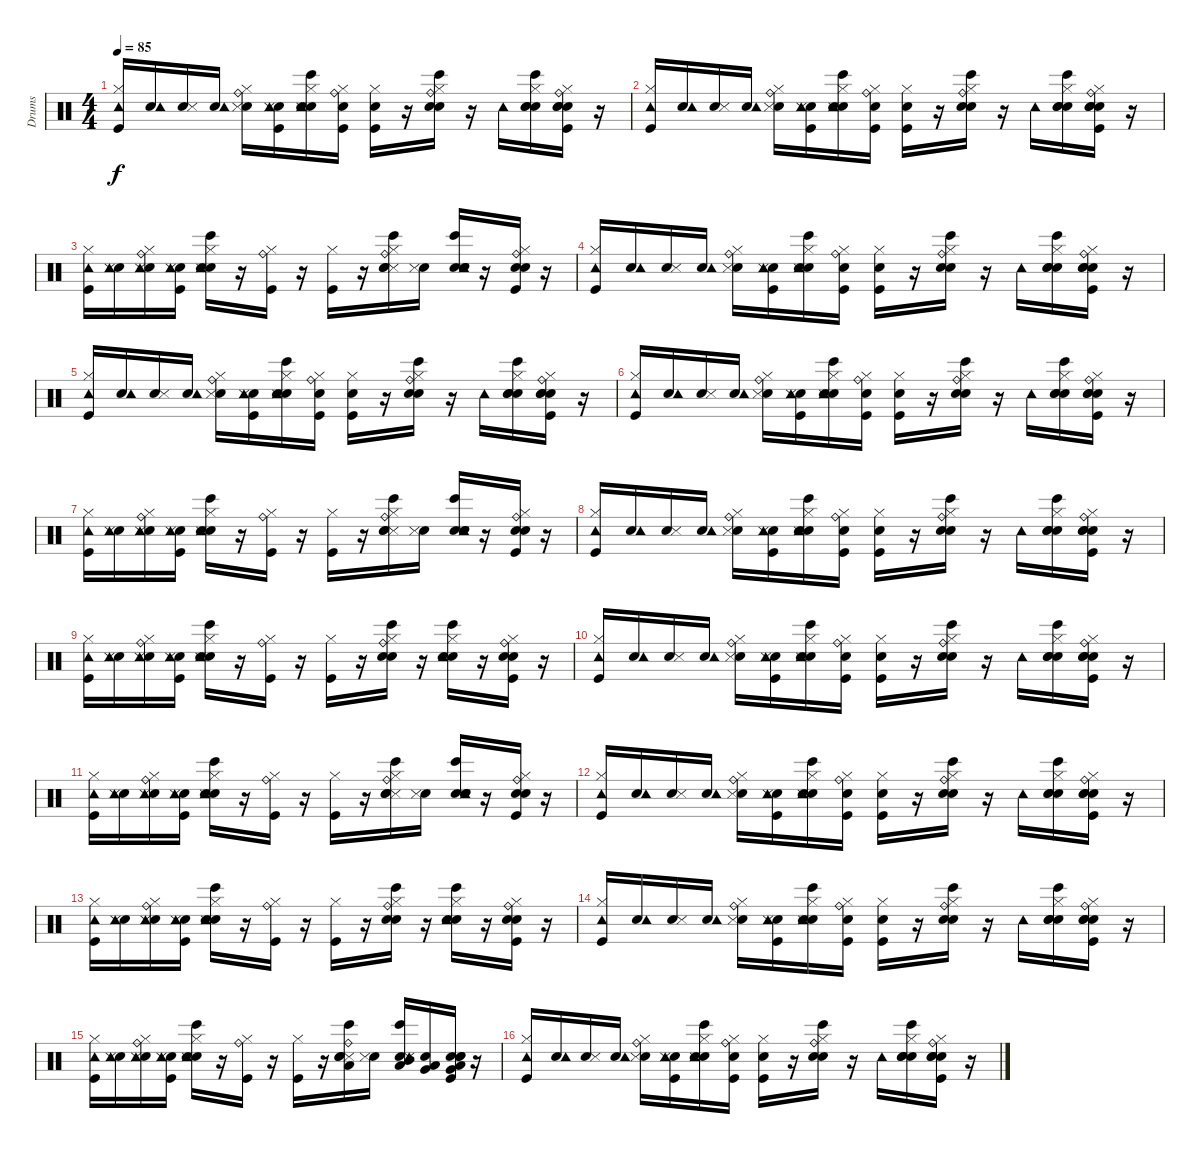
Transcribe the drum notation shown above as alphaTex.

\track ("Drums" "Drums") {instrument percussion}
\staff {score}
\articulation defaults
\ts (4 4)
\tempo 85
\clef neutral
\ks c
("Kick (hit)" "Hi-Hat (closed)" "Tambourine (hit)").16{dy f} ("Snare (hit)" "Tambourine (hit)").16 ("Snare (hit)" "Metronome (hit)").16 ("Snare (hit)" "Tambourine (hit)").16 ("Snare (hit)" "Metronome (hit)" "Hi-Hat (closed)" "Ride (bell)").16 ("Snare (hit)" "Tambourine (hit)" "Metronome (hit)" "Kick (hit)").16 ("Snare (hit)" "Bongo High (hit)" "Metronome (hit)" "Snare (hit) 2" "Hi-Hat (closed)" "Tambourine (hit)").16 ("Snare (hit)" "Kick (hit)" "Hi-Hat (closed)" "Ride (bell)").16 ("Snare (hit)" "Kick (hit)" "Hi-Hat (closed)").16 r.16 ("Bongo High (hit)" "Snare (hit) 2" "Hand Clap (hit)" "Hi-Hat (closed)" "Ride (bell)").16 r.16 "Tambourine (hit)".16 ("Snare (hit)" "Bongo High (hit)" "Snare (hit) 2" "Hand Clap (hit)" "Hi-Hat (closed)").16 ("Snare (hit)" "Kick (hit)" "Snare (hit) 2" "Hand Clap (hit)" "Hi-Hat (closed)" "Ride (bell)").16 r.16 |
("Kick (hit)" "Hi-Hat (closed)" "Tambourine (hit)").16 ("Snare (hit)" "Tambourine (hit)").16 ("Snare (hit)" "Metronome (hit)").16 ("Snare (hit)" "Tambourine (hit)").16 ("Snare (hit)" "Metronome (hit)" "Hi-Hat (closed)" "Ride (bell)").16 ("Snare (hit)" "Tambourine (hit)" "Metronome (hit)" "Kick (hit)").16 ("Snare (hit)" "Bongo High (hit)" "Metronome (hit)" "Snare (hit) 2" "Hi-Hat (closed)" "Tambourine (hit)").16 ("Snare (hit)" "Kick (hit)" "Hi-Hat (closed)" "Ride (bell)").16 ("Snare (hit)" "Kick (hit)" "Hi-Hat (closed)").16 r.16 ("Bongo High (hit)" "Snare (hit) 2" "Hand Clap (hit)" "Hi-Hat (closed)" "Ride (bell)").16 r.16 "Tambourine (hit)".16 ("Snare (hit)" "Bongo High (hit)" "Snare (hit) 2" "Hand Clap (hit)" "Hi-Hat (closed)").16 ("Snare (hit)" "Kick (hit)" "Snare (hit) 2" "Hand Clap (hit)" "Hi-Hat (closed)" "Ride (bell)").16 r.16 |
("Kick (hit)" "Hi-Hat (closed)" "Tambourine (hit)").16 ("Snare (hit)" "Metronome (hit)" "Tambourine (hit)").16 ("Snare (hit)" "Metronome (hit)" "Hi-Hat (closed)" "Ride (bell)" "Tambourine (hit)").16 ("Snare (hit)" "Metronome (hit)" "Kick (hit)" "Tambourine (hit)").16 ("Snare (hit)" "Bongo High (hit)" "Metronome (hit)" "Snare (hit) 2" "Hi-Hat (closed)" "Tambourine (hit)").16 r.16 ("Kick (hit)" "Hi-Hat (closed)" "Ride (bell)").16 r.16 ("Kick (hit)" "Hi-Hat (closed)").16 r.16 ("Bongo High (hit)" "Metronome (hit)" "Snare (hit) 2" "Hand Clap (hit)" "Hi-Hat (closed)" "Ride (bell)").16 ("Snare (hit)" "Metronome (hit)").16 ("Snare (hit)" "Bongo High (hit)" "Metronome (hit)" "Snare (hit) 2" "Hand Clap (hit)" "Tambourine (hit)").16 r.16 ("Kick (hit)" "Snare (hit) 2" "Hand Clap (hit)" "Hi-Hat (closed)" "Ride (bell)").16 r.16 |
("Kick (hit)" "Hi-Hat (closed)" "Tambourine (hit)").16 ("Snare (hit)" "Tambourine (hit)").16 ("Snare (hit)" "Metronome (hit)").16 ("Snare (hit)" "Tambourine (hit)").16 ("Snare (hit)" "Metronome (hit)" "Hi-Hat (closed)" "Ride (bell)").16 ("Snare (hit)" "Tambourine (hit)" "Metronome (hit)" "Kick (hit)").16 ("Snare (hit)" "Bongo High (hit)" "Metronome (hit)" "Snare (hit) 2" "Hi-Hat (closed)" "Tambourine (hit)").16 ("Snare (hit)" "Kick (hit)" "Hi-Hat (closed)" "Ride (bell)").16 ("Snare (hit)" "Kick (hit)" "Hi-Hat (closed)").16 r.16 ("Bongo High (hit)" "Snare (hit) 2" "Hand Clap (hit)" "Hi-Hat (closed)" "Ride (bell)").16 r.16 "Tambourine (hit)".16 ("Snare (hit)" "Bongo High (hit)" "Snare (hit) 2" "Hand Clap (hit)" "Hi-Hat (closed)").16 ("Snare (hit)" "Kick (hit)" "Snare (hit) 2" "Hand Clap (hit)" "Hi-Hat (closed)" "Ride (bell)").16 r.16 |
("Kick (hit)" "Hi-Hat (closed)" "Tambourine (hit)").16 ("Snare (hit)" "Tambourine (hit)").16 ("Snare (hit)" "Metronome (hit)").16 ("Snare (hit)" "Tambourine (hit)").16 ("Snare (hit)" "Metronome (hit)" "Hi-Hat (closed)" "Ride (bell)").16 ("Snare (hit)" "Tambourine (hit)" "Metronome (hit)" "Kick (hit)").16 ("Snare (hit)" "Bongo High (hit)" "Metronome (hit)" "Snare (hit) 2" "Hi-Hat (closed)" "Tambourine (hit)").16 ("Snare (hit)" "Kick (hit)" "Hi-Hat (closed)" "Ride (bell)").16 ("Snare (hit)" "Kick (hit)" "Hi-Hat (closed)").16 r.16 ("Bongo High (hit)" "Snare (hit) 2" "Hand Clap (hit)" "Hi-Hat (closed)" "Ride (bell)").16 r.16 "Tambourine (hit)".16 ("Snare (hit)" "Bongo High (hit)" "Snare (hit) 2" "Hand Clap (hit)" "Hi-Hat (closed)").16 ("Snare (hit)" "Kick (hit)" "Snare (hit) 2" "Hand Clap (hit)" "Hi-Hat (closed)" "Ride (bell)").16 r.16 |
("Kick (hit)" "Hi-Hat (closed)" "Tambourine (hit)").16 ("Snare (hit)" "Tambourine (hit)").16 ("Snare (hit)" "Metronome (hit)").16 ("Snare (hit)" "Tambourine (hit)").16 ("Snare (hit)" "Metronome (hit)" "Hi-Hat (closed)" "Ride (bell)").16 ("Snare (hit)" "Tambourine (hit)" "Metronome (hit)" "Kick (hit)").16 ("Snare (hit)" "Bongo High (hit)" "Metronome (hit)" "Snare (hit) 2" "Hi-Hat (closed)" "Tambourine (hit)").16 ("Snare (hit)" "Kick (hit)" "Hi-Hat (closed)" "Ride (bell)").16 ("Snare (hit)" "Kick (hit)" "Hi-Hat (closed)").16 r.16 ("Bongo High (hit)" "Snare (hit) 2" "Hand Clap (hit)" "Hi-Hat (closed)" "Ride (bell)").16 r.16 "Tambourine (hit)".16 ("Snare (hit)" "Bongo High (hit)" "Snare (hit) 2" "Hand Clap (hit)" "Hi-Hat (closed)").16 ("Snare (hit)" "Kick (hit)" "Snare (hit) 2" "Hand Clap (hit)" "Hi-Hat (closed)" "Ride (bell)").16 r.16 |
("Kick (hit)" "Hi-Hat (closed)" "Tambourine (hit)").16 ("Snare (hit)" "Metronome (hit)" "Tambourine (hit)").16 ("Snare (hit)" "Metronome (hit)" "Hi-Hat (closed)" "Ride (bell)" "Tambourine (hit)").16 ("Snare (hit)" "Metronome (hit)" "Kick (hit)" "Tambourine (hit)").16 ("Snare (hit)" "Bongo High (hit)" "Metronome (hit)" "Snare (hit) 2" "Hi-Hat (closed)" "Tambourine (hit)").16 r.16 ("Kick (hit)" "Hi-Hat (closed)" "Ride (bell)").16 r.16 ("Kick (hit)" "Hi-Hat (closed)").16 r.16 ("Bongo High (hit)" "Metronome (hit)" "Snare (hit) 2" "Hand Clap (hit)" "Hi-Hat (closed)" "Ride (bell)").16 ("Snare (hit)" "Metronome (hit)").16 ("Snare (hit)" "Bongo High (hit)" "Metronome (hit)" "Snare (hit) 2" "Hand Clap (hit)" "Tambourine (hit)").16 r.16 ("Kick (hit)" "Snare (hit) 2" "Hand Clap (hit)" "Hi-Hat (closed)" "Ride (bell)").16 r.16 |
("Kick (hit)" "Hi-Hat (closed)" "Tambourine (hit)").16 ("Snare (hit)" "Tambourine (hit)").16 ("Snare (hit)" "Metronome (hit)").16 ("Snare (hit)" "Tambourine (hit)").16 ("Snare (hit)" "Metronome (hit)" "Hi-Hat (closed)" "Ride (bell)").16 ("Snare (hit)" "Tambourine (hit)" "Metronome (hit)" "Kick (hit)").16 ("Snare (hit)" "Bongo High (hit)" "Metronome (hit)" "Snare (hit) 2" "Hi-Hat (closed)" "Tambourine (hit)").16 ("Snare (hit)" "Kick (hit)" "Hi-Hat (closed)" "Ride (bell)").16 ("Snare (hit)" "Kick (hit)" "Hi-Hat (closed)").16 r.16 ("Bongo High (hit)" "Snare (hit) 2" "Hand Clap (hit)" "Hi-Hat (closed)" "Ride (bell)").16 r.16 "Tambourine (hit)".16 ("Snare (hit)" "Bongo High (hit)" "Snare (hit) 2" "Hand Clap (hit)" "Hi-Hat (closed)").16 ("Snare (hit)" "Kick (hit)" "Snare (hit) 2" "Hand Clap (hit)" "Hi-Hat (closed)" "Ride (bell)").16 r.16 |
("Kick (hit)" "Hi-Hat (closed)" "Tambourine (hit)").16 ("Snare (hit)" "Metronome (hit)" "Tambourine (hit)").16 ("Snare (hit)" "Metronome (hit)" "Hi-Hat (closed)" "Ride (bell)" "Tambourine (hit)").16 ("Snare (hit)" "Metronome (hit)" "Kick (hit)" "Tambourine (hit)").16 ("Snare (hit)" "Bongo High (hit)" "Metronome (hit)" "Snare (hit) 2" "Hi-Hat (closed)" "Tambourine (hit)").16 r.16 ("Kick (hit)" "Hi-Hat (closed)" "Ride (bell)").16 r.16 ("Kick (hit)" "Hi-Hat (closed)").16 r.16 ("Bongo High (hit)" "Snare (hit) 2" "Hand Clap (hit)" "Hi-Hat (closed)" "Ride (bell)").16 r.16 ("Bongo High (hit)" "Snare (hit) 2" "Hand Clap (hit)" "Hi-Hat (closed)" "Tambourine (hit)").16 r.16 ("Kick (hit)" "Snare (hit) 2" "Hand Clap (hit)" "Hi-Hat (closed)" "Ride (bell)").16 r.16 |
("Kick (hit)" "Hi-Hat (closed)" "Tambourine (hit)").16 ("Snare (hit)" "Tambourine (hit)").16 ("Snare (hit)" "Metronome (hit)").16 ("Snare (hit)" "Tambourine (hit)").16 ("Snare (hit)" "Metronome (hit)" "Hi-Hat (closed)" "Ride (bell)").16 ("Snare (hit)" "Tambourine (hit)" "Metronome (hit)" "Kick (hit)").16 ("Snare (hit)" "Bongo High (hit)" "Metronome (hit)" "Snare (hit) 2" "Hi-Hat (closed)" "Tambourine (hit)").16 ("Snare (hit)" "Kick (hit)" "Hi-Hat (closed)" "Ride (bell)").16 ("Snare (hit)" "Kick (hit)" "Hi-Hat (closed)").16 r.16 ("Bongo High (hit)" "Snare (hit) 2" "Hand Clap (hit)" "Hi-Hat (closed)" "Ride (bell)").16 r.16 "Tambourine (hit)".16 ("Snare (hit)" "Bongo High (hit)" "Snare (hit) 2" "Hand Clap (hit)" "Hi-Hat (closed)").16 ("Snare (hit)" "Kick (hit)" "Snare (hit) 2" "Hand Clap (hit)" "Hi-Hat (closed)" "Ride (bell)").16 r.16 |
("Kick (hit)" "Hi-Hat (closed)" "Tambourine (hit)").16 ("Snare (hit)" "Metronome (hit)" "Tambourine (hit)").16 ("Snare (hit)" "Metronome (hit)" "Hi-Hat (closed)" "Ride (bell)" "Tambourine (hit)").16 ("Snare (hit)" "Metronome (hit)" "Kick (hit)" "Tambourine (hit)").16 ("Snare (hit)" "Bongo High (hit)" "Metronome (hit)" "Snare (hit) 2" "Hi-Hat (closed)" "Tambourine (hit)").16 r.16 ("Kick (hit)" "Hi-Hat (closed)" "Ride (bell)").16 r.16 ("Kick (hit)" "Hi-Hat (closed)").16 r.16 ("Bongo High (hit)" "Metronome (hit)" "Snare (hit) 2" "Hand Clap (hit)" "Hi-Hat (closed)" "Ride (bell)").16 ("Snare (hit)" "Metronome (hit)").16 ("Snare (hit)" "Bongo High (hit)" "Metronome (hit)" "Snare (hit) 2" "Hand Clap (hit)" "Tambourine (hit)").16 r.16 ("Kick (hit)" "Snare (hit) 2" "Hand Clap (hit)" "Hi-Hat (closed)" "Ride (bell)").16 r.16 |
("Kick (hit)" "Hi-Hat (closed)" "Tambourine (hit)").16 ("Snare (hit)" "Tambourine (hit)").16 ("Snare (hit)" "Metronome (hit)").16 ("Snare (hit)" "Tambourine (hit)").16 ("Snare (hit)" "Metronome (hit)" "Hi-Hat (closed)" "Ride (bell)").16 ("Snare (hit)" "Tambourine (hit)" "Metronome (hit)" "Kick (hit)").16 ("Snare (hit)" "Bongo High (hit)" "Metronome (hit)" "Snare (hit) 2" "Hi-Hat (closed)" "Tambourine (hit)").16 ("Snare (hit)" "Kick (hit)" "Hi-Hat (closed)" "Ride (bell)").16 ("Snare (hit)" "Kick (hit)" "Hi-Hat (closed)").16 r.16 ("Bongo High (hit)" "Snare (hit) 2" "Hand Clap (hit)" "Hi-Hat (closed)" "Ride (bell)").16 r.16 "Tambourine (hit)".16 ("Snare (hit)" "Bongo High (hit)" "Snare (hit) 2" "Hand Clap (hit)" "Hi-Hat (closed)").16 ("Snare (hit)" "Kick (hit)" "Snare (hit) 2" "Hand Clap (hit)" "Hi-Hat (closed)" "Ride (bell)").16 r.16 |
("Kick (hit)" "Hi-Hat (closed)" "Tambourine (hit)").16 ("Snare (hit)" "Metronome (hit)" "Tambourine (hit)").16 ("Snare (hit)" "Metronome (hit)" "Hi-Hat (closed)" "Ride (bell)" "Tambourine (hit)").16 ("Snare (hit)" "Metronome (hit)" "Kick (hit)" "Tambourine (hit)").16 ("Snare (hit)" "Bongo High (hit)" "Metronome (hit)" "Snare (hit) 2" "Hi-Hat (closed)" "Tambourine (hit)").16 r.16 ("Kick (hit)" "Hi-Hat (closed)" "Ride (bell)").16 r.16 ("Kick (hit)" "Hi-Hat (closed)").16 r.16 ("Bongo High (hit)" "Snare (hit) 2" "Hand Clap (hit)" "Hi-Hat (closed)" "Ride (bell)").16 r.16 ("Bongo High (hit)" "Snare (hit) 2" "Hand Clap (hit)" "Hi-Hat (closed)" "Tambourine (hit)").16 r.16 ("Kick (hit)" "Snare (hit) 2" "Hand Clap (hit)" "Hi-Hat (closed)" "Ride (bell)").16 r.16 |
("Kick (hit)" "Hi-Hat (closed)" "Tambourine (hit)").16 ("Snare (hit)" "Tambourine (hit)").16 ("Snare (hit)" "Metronome (hit)").16 ("Snare (hit)" "Tambourine (hit)").16 ("Snare (hit)" "Metronome (hit)" "Hi-Hat (closed)" "Ride (bell)").16 ("Snare (hit)" "Tambourine (hit)" "Metronome (hit)" "Kick (hit)").16 ("Snare (hit)" "Bongo High (hit)" "Metronome (hit)" "Snare (hit) 2" "Hi-Hat (closed)" "Tambourine (hit)").16 ("Snare (hit)" "Kick (hit)" "Hi-Hat (closed)" "Ride (bell)").16 ("Snare (hit)" "Kick (hit)" "Hi-Hat (closed)").16 r.16 ("Bongo High (hit)" "Snare (hit) 2" "Hand Clap (hit)" "Hi-Hat (closed)" "Ride (bell)").16 r.16 "Tambourine (hit)".16 ("Snare (hit)" "Bongo High (hit)" "Snare (hit) 2" "Hand Clap (hit)" "Hi-Hat (closed)").16 ("Snare (hit)" "Kick (hit)" "Snare (hit) 2" "Hand Clap (hit)" "Hi-Hat (closed)" "Ride (bell)").16 r.16 |
("Kick (hit)" "Hi-Hat (closed)" "Tambourine (hit)").16 ("Snare (hit)" "Metronome (hit)" "Tambourine (hit)").16 ("Snare (hit)" "Metronome (hit)" "Hi-Hat (closed)" "Ride (bell)" "Tambourine (hit)").16 ("Snare (hit)" "Metronome (hit)" "Kick (hit)" "Tambourine (hit)").16 ("Snare (hit)" "Bongo High (hit)" "Metronome (hit)" "Snare (hit) 2" "Hi-Hat (closed)" "Tambourine (hit)").16 r.16 ("Kick (hit)" "Hi-Hat (closed)" "Ride (bell)").16 r.16 ("Kick (hit)" "Hi-Hat (closed)").16 r.16 ("Low Tom (hit)" "Bongo High (hit)" "Metronome (hit)" "Snare (hit) 2" "Hand Clap (hit)" "Ride (bell)").16 ("Snare (hit)" "Metronome (hit)").16 ("Snare (hit)" "Low Tom (hit)" "Mid Tom (hit)" "Bongo High (hit)" "Metronome (hit)" "Tambourine (hit)").16 ("Snare (hit)" "Low Tom (hit)" "Very Low Tom (hit)").16 ("Snare (hit)" "Very Low Tom (hit)" "Kick (hit)" "Snare (hit) 2" "Hand Clap (hit)" "Low Floor Tom (hit)").16 r.16 |
("Kick (hit)" "Hi-Hat (closed)" "Tambourine (hit)").16 ("Snare (hit)" "Tambourine (hit)").16 ("Snare (hit)" "Metronome (hit)").16 ("Snare (hit)" "Tambourine (hit)").16 ("Snare (hit)" "Metronome (hit)" "Hi-Hat (closed)" "Ride (bell)").16 ("Snare (hit)" "Tambourine (hit)" "Metronome (hit)" "Kick (hit)").16 ("Snare (hit)" "Bongo High (hit)" "Metronome (hit)" "Snare (hit) 2" "Hi-Hat (closed)" "Tambourine (hit)").16 ("Snare (hit)" "Kick (hit)" "Hi-Hat (closed)" "Ride (bell)").16 ("Snare (hit)" "Kick (hit)" "Hi-Hat (closed)").16 r.16 ("Bongo High (hit)" "Snare (hit) 2" "Hand Clap (hit)" "Hi-Hat (closed)" "Ride (bell)").16 r.16 "Tambourine (hit)".16 ("Snare (hit)" "Bongo High (hit)" "Snare (hit) 2" "Hand Clap (hit)" "Hi-Hat (closed)").16 ("Snare (hit)" "Kick (hit)" "Snare (hit) 2" "Hand Clap (hit)" "Hi-Hat (closed)" "Ride (bell)").16 r.16
